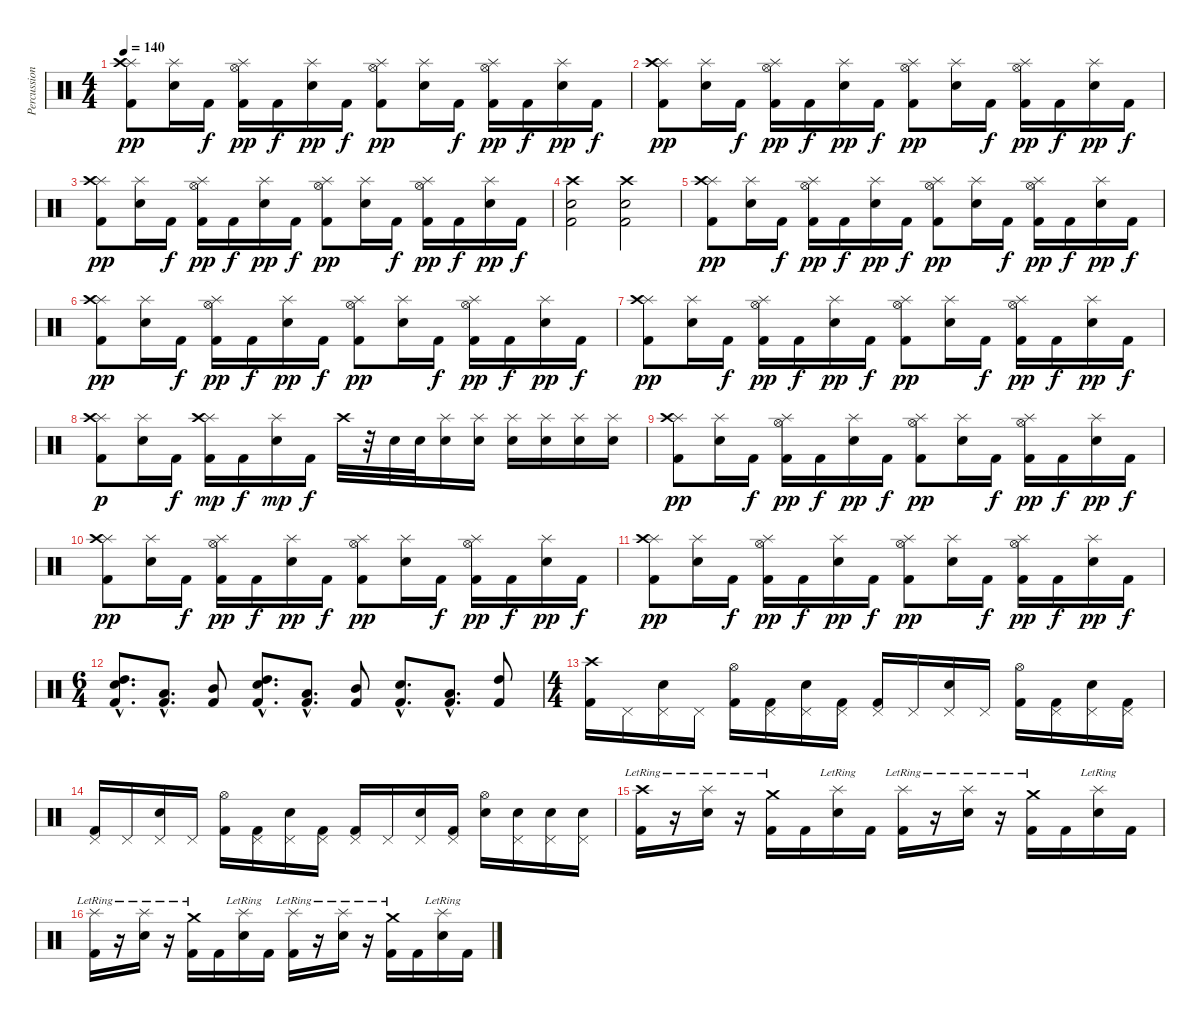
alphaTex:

\track ("Percussion" "Percussion") {instrument percussion}
\staff {score}
\articulation defaults
\ts (4 4)
\tempo 140
\clef neutral
\ks c
("Splash (hit)" "Crash high (hit)" "Kick (hit) 2").8{dy pp} ("Splash (hit)" "Electric Snare (hit)").16 "Kick (hit) 2".16{dy f} ("Splash (hit)" "Hi-Hat (open)" "Kick (hit) 2").16{dy pp} "Kick (hit) 2".16{dy f} ("Splash (hit)" "Electric Snare (hit)").16{dy pp} "Kick (hit) 2".16{dy f} ("Splash (hit)" "Hi-Hat (open)" "Kick (hit) 2").8{dy pp} ("Splash (hit)" "Electric Snare (hit)").16 "Kick (hit) 2".16{dy f} ("Splash (hit)" "Hi-Hat (open)" "Kick (hit) 2").16{dy pp} "Kick (hit) 2".16{dy f} ("Splash (hit)" "Electric Snare (hit)").16{dy pp} "Kick (hit) 2".16{dy f} |
("Splash (hit)" "Crash high (hit)" "Kick (hit) 2").8{dy pp} ("Splash (hit)" "Electric Snare (hit)").16 "Kick (hit) 2".16{dy f} ("Splash (hit)" "Hi-Hat (open)" "Kick (hit) 2").16{dy pp} "Kick (hit) 2".16{dy f} ("Splash (hit)" "Electric Snare (hit)").16{dy pp} "Kick (hit) 2".16{dy f} ("Splash (hit)" "Hi-Hat (open)" "Kick (hit) 2").8{dy pp} ("Splash (hit)" "Electric Snare (hit)").16 "Kick (hit) 2".16{dy f} ("Splash (hit)" "Hi-Hat (open)" "Kick (hit) 2").16{dy pp} "Kick (hit) 2".16{dy f} ("Splash (hit)" "Electric Snare (hit)").16{dy pp} "Kick (hit) 2".16{dy f} |
("Splash (hit)" "Crash high (hit)" "Kick (hit) 2").8{dy pp} ("Splash (hit)" "Electric Snare (hit)").16 "Kick (hit) 2".16{dy f} ("Splash (hit)" "Hi-Hat (open)" "Kick (hit) 2").16{dy pp} "Kick (hit) 2".16{dy f} ("Splash (hit)" "Electric Snare (hit)").16{dy pp} "Kick (hit) 2".16{dy f} ("Splash (hit)" "Hi-Hat (open)" "Kick (hit) 2").8{dy pp} ("Splash (hit)" "Electric Snare (hit)").16 "Kick (hit) 2".16{dy f} ("Splash (hit)" "Hi-Hat (open)" "Kick (hit) 2").16{dy pp} "Kick (hit) 2".16{dy f} ("Splash (hit)" "Electric Snare (hit)").16{dy pp} "Kick (hit) 2".16{dy f} |
("Crash high (hit)" "Electric Snare (hit)" "Kick (hit) 2").2 ("Electric Snare (hit)" "Crash high (hit)" "Kick (hit) 2").2 |
("Splash (hit)" "Crash high (hit)" "Kick (hit) 2").8{dy pp} ("Splash (hit)" "Electric Snare (hit)").16 "Kick (hit) 2".16{dy f} ("Splash (hit)" "Hi-Hat (open)" "Kick (hit) 2").16{dy pp} "Kick (hit) 2".16{dy f} ("Splash (hit)" "Electric Snare (hit)").16{dy pp} "Kick (hit) 2".16{dy f} ("Splash (hit)" "Hi-Hat (open)" "Kick (hit) 2").8{dy pp} ("Splash (hit)" "Electric Snare (hit)").16 "Kick (hit) 2".16{dy f} ("Splash (hit)" "Hi-Hat (open)" "Kick (hit) 2").16{dy pp} "Kick (hit) 2".16{dy f} ("Splash (hit)" "Electric Snare (hit)").16{dy pp} "Kick (hit) 2".16{dy f} |
("Splash (hit)" "Crash high (hit)" "Kick (hit) 2").8{dy pp} ("Splash (hit)" "Electric Snare (hit)").16 "Kick (hit) 2".16{dy f} ("Splash (hit)" "Hi-Hat (open)" "Kick (hit) 2").16{dy pp} "Kick (hit) 2".16{dy f} ("Splash (hit)" "Electric Snare (hit)").16{dy pp} "Kick (hit) 2".16{dy f} ("Splash (hit)" "Hi-Hat (open)" "Kick (hit) 2").8{dy pp} ("Splash (hit)" "Electric Snare (hit)").16 "Kick (hit) 2".16{dy f} ("Splash (hit)" "Hi-Hat (open)" "Kick (hit) 2").16{dy pp} "Kick (hit) 2".16{dy f} ("Splash (hit)" "Electric Snare (hit)").16{dy pp} "Kick (hit) 2".16{dy f} |
("Splash (hit)" "Crash high (hit)" "Kick (hit) 2").8{dy pp} ("Splash (hit)" "Electric Snare (hit)").16 "Kick (hit) 2".16{dy f} ("Splash (hit)" "Hi-Hat (open)" "Kick (hit) 2").16{dy pp} "Kick (hit) 2".16{dy f} ("Splash (hit)" "Electric Snare (hit)").16{dy pp} "Kick (hit) 2".16{dy f} ("Splash (hit)" "Hi-Hat (open)" "Kick (hit) 2").8{dy pp} ("Splash (hit)" "Electric Snare (hit)").16 "Kick (hit) 2".16{dy f} ("Splash (hit)" "Hi-Hat (open)" "Kick (hit) 2").16{dy pp} "Kick (hit) 2".16{dy f} ("Splash (hit)" "Electric Snare (hit)").16{dy pp} "Kick (hit) 2".16{dy f} |
("Splash (hit)" "Crash high (hit)" "Kick (hit) 2").8{dy p} ("Splash (hit)" "Electric Snare (hit)").16 "Kick (hit) 2".16{dy f} ("Splash (hit)" "Crash high (hit)" "Kick (hit) 2").16{dy mp} "Kick (hit) 2".16{dy f} ("Splash (hit)" "Electric Snare (hit)").16{dy mp} "Kick (hit) 2".16{dy f} "Crash high (hit)".32 r.32 "Electric Snare (hit)".32 "Electric Snare (hit)".32 ("Splash (hit)" "Electric Snare (hit)").16 ("Splash (hit)" "Electric Snare (hit)").16 ("Splash (hit)" "Electric Snare (hit)").16 ("Splash (hit)" "Electric Snare (hit)").16 ("Splash (hit)" "Electric Snare (hit)").16 ("Splash (hit)" "Electric Snare (hit)").16 |
("Splash (hit)" "Crash high (hit)" "Kick (hit) 2").8{dy pp} ("Splash (hit)" "Electric Snare (hit)").16 "Kick (hit) 2".16{dy f} ("Splash (hit)" "Hi-Hat (open)" "Kick (hit) 2").16{dy pp} "Kick (hit) 2".16{dy f} ("Splash (hit)" "Electric Snare (hit)").16{dy pp} "Kick (hit) 2".16{dy f} ("Splash (hit)" "Hi-Hat (open)" "Kick (hit) 2").8{dy pp} ("Splash (hit)" "Electric Snare (hit)").16 "Kick (hit) 2".16{dy f} ("Splash (hit)" "Hi-Hat (open)" "Kick (hit) 2").16{dy pp} "Kick (hit) 2".16{dy f} ("Splash (hit)" "Electric Snare (hit)").16{dy pp} "Kick (hit) 2".16{dy f} |
("Splash (hit)" "Crash high (hit)" "Kick (hit) 2").8{dy pp} ("Splash (hit)" "Electric Snare (hit)").16 "Kick (hit) 2".16{dy f} ("Splash (hit)" "Hi-Hat (open)" "Kick (hit) 2").16{dy pp} "Kick (hit) 2".16{dy f} ("Splash (hit)" "Electric Snare (hit)").16{dy pp} "Kick (hit) 2".16{dy f} ("Splash (hit)" "Hi-Hat (open)" "Kick (hit) 2").8{dy pp} ("Splash (hit)" "Electric Snare (hit)").16 "Kick (hit) 2".16{dy f} ("Splash (hit)" "Hi-Hat (open)" "Kick (hit) 2").16{dy pp} "Kick (hit) 2".16{dy f} ("Splash (hit)" "Electric Snare (hit)").16{dy pp} "Kick (hit) 2".16{dy f} |
("Splash (hit)" "Crash high (hit)" "Kick (hit) 2").8{dy pp} ("Splash (hit)" "Electric Snare (hit)").16 "Kick (hit) 2".16{dy f} ("Splash (hit)" "Hi-Hat (open)" "Kick (hit) 2").16{dy pp} "Kick (hit) 2".16{dy f} ("Splash (hit)" "Electric Snare (hit)").16{dy pp} "Kick (hit) 2".16{dy f} ("Splash (hit)" "Hi-Hat (open)" "Kick (hit) 2").8{dy pp} ("Splash (hit)" "Electric Snare (hit)").16 "Kick (hit) 2".16{dy f} ("Splash (hit)" "Hi-Hat (open)" "Kick (hit) 2").16{dy pp} "Kick (hit) 2".16{dy f} ("Splash (hit)" "Electric Snare (hit)").16{dy pp} "Kick (hit) 2".16{dy f} |
\ts (6 4)
("Electric Snare (hit)"{hac} "High Tom (hit)"{hac} "Kick (hit) 2"{hac}).8{d} ("Low Tom (hit)"{hac} "Kick (hit) 2"{hac}).8{d} ("Mid Tom (hit)" "Kick (hit) 2").8 ("Electric Snare (hit)"{hac} "High Tom (hit)"{hac} "Kick (hit) 2"{hac}).8{d} ("Low Tom (hit)"{hac} "Kick (hit) 2"{hac}).8{d} ("Mid Tom (hit)" "Kick (hit) 2").8 ("Electric Snare (hit)"{hac} "Kick (hit) 2"{hac}).8{d} ("Low Tom (hit)"{hac} "Kick (hit) 2"{hac}).8{d} ("High Tom (hit)" "Kick (hit) 2").8 |
\ts (4 4)
("Crash high (hit)" "Kick (hit) 2").16 "Pedal Hi-Hat (hit)".16 ("Pedal Hi-Hat (hit)" "Electric Snare (hit)").16 "Pedal Hi-Hat (hit)".16 ("Hi-Hat (open)" "Kick (hit) 2").16 ("Pedal Hi-Hat (hit)" "Kick (hit) 2").16 ("Pedal Hi-Hat (hit)" "Electric Snare (hit)").16 ("Pedal Hi-Hat (hit)" "Kick (hit) 2").16 ("Pedal Hi-Hat (hit)" "Kick (hit) 2").16 "Pedal Hi-Hat (hit)".16 ("Pedal Hi-Hat (hit)" "Electric Snare (hit)").16 "Pedal Hi-Hat (hit)".16 ("Hi-Hat (open)" "Kick (hit) 2").16 ("Pedal Hi-Hat (hit)" "Kick (hit) 2").16 ("Pedal Hi-Hat (hit)" "Electric Snare (hit)").16 ("Pedal Hi-Hat (hit)" "Kick (hit) 2").16 |
("Pedal Hi-Hat (hit)" "Kick (hit) 2").16 "Pedal Hi-Hat (hit)".16 ("Pedal Hi-Hat (hit)" "Electric Snare (hit)").16 "Pedal Hi-Hat (hit)".16 ("Hi-Hat (open)" "Kick (hit) 2").16 ("Pedal Hi-Hat (hit)" "Kick (hit) 2").16 ("Pedal Hi-Hat (hit)" "Electric Snare (hit)").16 ("Pedal Hi-Hat (hit)" "Kick (hit) 2").16 ("Pedal Hi-Hat (hit)" "Kick (hit) 2").16 "Pedal Hi-Hat (hit)".16 ("Pedal Hi-Hat (hit)" "Electric Snare (hit)").16 ("Pedal Hi-Hat (hit)" "Kick (hit) 2").16 ("Hi-Hat (open)" "Electric Snare (hit)").16 ("Pedal Hi-Hat (hit)" "Electric Snare (hit)").16 ("Pedal Hi-Hat (hit)" "Electric Snare (hit)").16 ("Pedal Hi-Hat (hit)" "Electric Snare (hit)").16 |
("Crash high (hit)"{lr} "Kick (hit) 2").16 r.16 ("Splash (hit)"{lr} "Electric Snare (hit)").16 r.16 ("Crash medium (hit)"{lr} "Kick (hit) 2").16 "Kick (hit) 2".16 ("Splash (hit)"{lr} "Electric Snare (hit)").16 "Kick (hit) 2".16 ("Splash (hit)"{lr} "Kick (hit) 2").16 r.16 ("Splash (hit)"{lr} "Electric Snare (hit)").16 r.16 ("Crash medium (hit)"{lr} "Kick (hit) 2").16 "Kick (hit) 2".16 ("Splash (hit)"{lr} "Electric Snare (hit)").16 "Kick (hit) 2".16 |
("Splash (hit)"{lr} "Kick (hit) 2").16 r.16 ("Splash (hit)"{lr} "Electric Snare (hit)").16 r.16 ("Crash medium (hit)"{lr} "Kick (hit) 2").16 "Kick (hit) 2".16 ("Splash (hit)"{lr} "Electric Snare (hit)").16 "Kick (hit) 2".16 ("Splash (hit)"{lr} "Kick (hit) 2").16 r.16 ("Splash (hit)"{lr} "Electric Snare (hit)").16 r.16 ("Crash medium (hit)"{lr} "Kick (hit) 2").16 "Kick (hit) 2".16 ("Splash (hit)"{lr} "Electric Snare (hit)").16 "Kick (hit) 2".16
